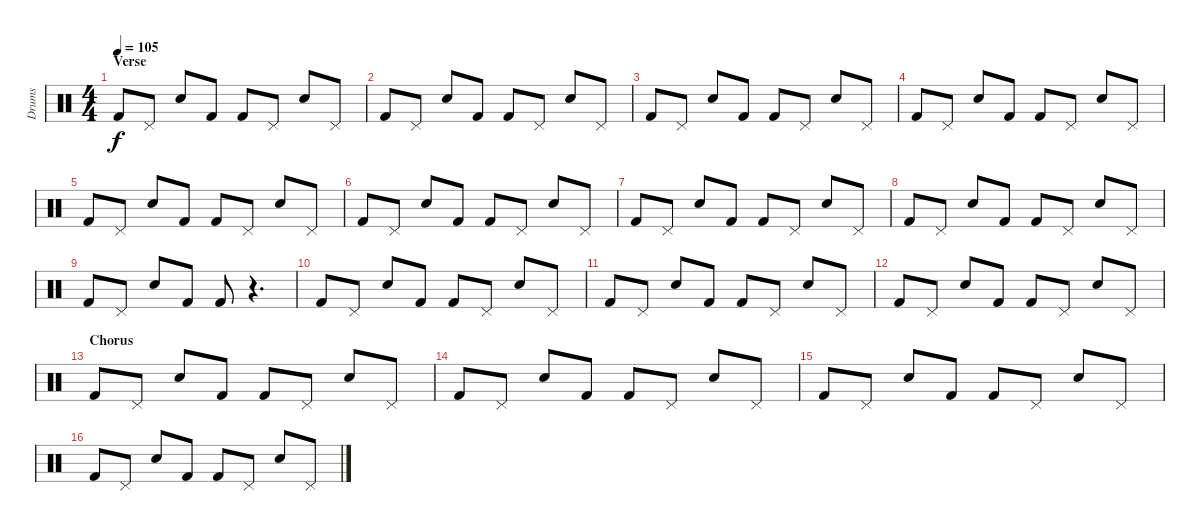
\track ("Drums" "Drums") {instrument percussion}
\staff {score}
\articulation defaults
\ts (4 4)
\section ("" "Verse")
\tempo 105
\clef neutral
\ks c "Kick (hit) 2".8{dy f} "Pedal Hi-Hat (hit)".8 "Electric Snare (hit)".8 "Kick (hit) 2".8 "Kick (hit) 2".8 "Pedal Hi-Hat (hit)".8 "Electric Snare (hit)".8 "Pedal Hi-Hat (hit)".8
|
"Kick (hit) 2".8 "Pedal Hi-Hat (hit)".8 "Electric Snare (hit)".8 "Kick (hit) 2".8 "Kick (hit) 2".8 "Pedal Hi-Hat (hit)".8 "Electric Snare (hit)".8 "Pedal Hi-Hat (hit)".8 |
"Kick (hit) 2".8 "Pedal Hi-Hat (hit)".8 "Electric Snare (hit)".8 "Kick (hit) 2".8 "Kick (hit) 2".8 "Pedal Hi-Hat (hit)".8 "Electric Snare (hit)".8 "Pedal Hi-Hat (hit)".8 |
"Kick (hit) 2".8 "Pedal Hi-Hat (hit)".8 "Electric Snare (hit)".8 "Kick (hit) 2".8 "Kick (hit) 2".8 "Pedal Hi-Hat (hit)".8 "Electric Snare (hit)".8 "Pedal Hi-Hat (hit)".8 |
"Kick (hit) 2".8 "Pedal Hi-Hat (hit)".8 "Electric Snare (hit)".8 "Kick (hit) 2".8 "Kick (hit) 2".8 "Pedal Hi-Hat (hit)".8 "Electric Snare (hit)".8 "Pedal Hi-Hat (hit)".8 |
"Kick (hit) 2".8 "Pedal Hi-Hat (hit)".8 "Electric Snare (hit)".8 "Kick (hit) 2".8 "Kick (hit) 2".8 "Pedal Hi-Hat (hit)".8 "Electric Snare (hit)".8 "Pedal Hi-Hat (hit)".8 |
"Kick (hit) 2".8 "Pedal Hi-Hat (hit)".8 "Electric Snare (hit)".8 "Kick (hit) 2".8 "Kick (hit) 2".8 "Pedal Hi-Hat (hit)".8 "Electric Snare (hit)".8 "Pedal Hi-Hat (hit)".8 |
"Kick (hit) 2".8 "Pedal Hi-Hat (hit)".8 "Electric Snare (hit)".8 "Kick (hit) 2".8 "Kick (hit) 2".8 "Pedal Hi-Hat (hit)".8 "Electric Snare (hit)".8 "Pedal Hi-Hat (hit)".8 |
"Kick (hit) 2".8 "Pedal Hi-Hat (hit)".8 "Electric Snare (hit)".8 "Kick (hit) 2".8 "Kick (hit) 2".8 r.4{d} |
"Kick (hit) 2".8 "Pedal Hi-Hat (hit)".8 "Electric Snare (hit)".8 "Kick (hit) 2".8 "Kick (hit) 2".8 "Pedal Hi-Hat (hit)".8 "Electric Snare (hit)".8 "Pedal Hi-Hat (hit)".8 |
"Kick (hit) 2".8 "Pedal Hi-Hat (hit)".8 "Electric Snare (hit)".8 "Kick (hit) 2".8 "Kick (hit) 2".8 "Pedal Hi-Hat (hit)".8 "Electric Snare (hit)".8 "Pedal Hi-Hat (hit)".8 |
"Kick (hit) 2".8 "Pedal Hi-Hat (hit)".8 "Electric Snare (hit)".8 "Kick (hit) 2".8 "Kick (hit) 2".8 "Pedal Hi-Hat (hit)".8 "Electric Snare (hit)".8 "Pedal Hi-Hat (hit)".8 |
\section ("" "Chorus")
"Kick (hit) 2".8 "Pedal Hi-Hat (hit)".8 "Electric Snare (hit)".8 "Kick (hit) 2".8 "Kick (hit) 2".8 "Pedal Hi-Hat (hit)".8 "Electric Snare (hit)".8 "Pedal Hi-Hat (hit)".8 |
"Kick (hit) 2".8 "Pedal Hi-Hat (hit)".8 "Electric Snare (hit)".8 "Kick (hit) 2".8 "Kick (hit) 2".8 "Pedal Hi-Hat (hit)".8 "Electric Snare (hit)".8 "Pedal Hi-Hat (hit)".8 |
"Kick (hit) 2".8 "Pedal Hi-Hat (hit)".8 "Electric Snare (hit)".8 "Kick (hit) 2".8 "Kick (hit) 2".8 "Pedal Hi-Hat (hit)".8 "Electric Snare (hit)".8 "Pedal Hi-Hat (hit)".8 |
"Kick (hit) 2".8 "Pedal Hi-Hat (hit)".8 "Electric Snare (hit)".8 "Kick (hit) 2".8 "Kick (hit) 2".8 "Pedal Hi-Hat (hit)".8 "Electric Snare (hit)".8 "Pedal Hi-Hat (hit)".8
